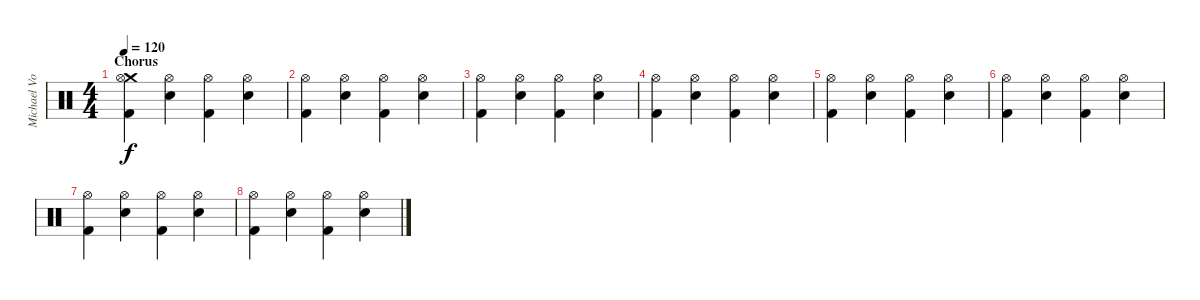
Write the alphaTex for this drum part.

\track ("Michael Von Knorring" "Michael Vo") {instrument percussion}
\staff {score}
\articulation defaults
\ts (4 4)
\section ("" "Chorus")
\tempo 120
\clef neutral
\ks c
("Crash medium (hit)" "Hi-Hat (open)" "Kick (hit) 2").4{dy f} ("Hi-Hat (open)" "Snare (hit) 2").4 ("Hi-Hat (open)" "Kick (hit) 2").4 ("Hi-Hat (open)" "Snare (hit) 2").4 |
("Hi-Hat (open)" "Kick (hit) 2").4 ("Hi-Hat (open)" "Snare (hit) 2").4 ("Hi-Hat (open)" "Kick (hit) 2").4 ("Hi-Hat (open)" "Snare (hit) 2").4 |
("Hi-Hat (open)" "Kick (hit) 2").4 ("Hi-Hat (open)" "Snare (hit) 2").4 ("Hi-Hat (open)" "Kick (hit) 2").4 ("Hi-Hat (open)" "Snare (hit) 2").4 |
("Hi-Hat (open)" "Kick (hit) 2").4 ("Hi-Hat (open)" "Snare (hit) 2").4 ("Hi-Hat (open)" "Kick (hit) 2").4 ("Hi-Hat (open)" "Snare (hit) 2").4 |
("Hi-Hat (open)" "Kick (hit) 2").4 ("Hi-Hat (open)" "Snare (hit) 2").4 ("Hi-Hat (open)" "Kick (hit) 2").4 ("Hi-Hat (open)" "Snare (hit) 2").4 |
("Hi-Hat (open)" "Kick (hit) 2").4 ("Hi-Hat (open)" "Snare (hit) 2").4 ("Hi-Hat (open)" "Kick (hit) 2").4 ("Hi-Hat (open)" "Snare (hit) 2").4 |
("Hi-Hat (open)" "Kick (hit) 2").4 ("Hi-Hat (open)" "Snare (hit) 2").4 ("Hi-Hat (open)" "Kick (hit) 2").4 ("Hi-Hat (open)" "Snare (hit) 2").4 |
("Hi-Hat (open)" "Kick (hit) 2").4 ("Hi-Hat (open)" "Snare (hit) 2").4 ("Hi-Hat (open)" "Kick (hit) 2").4 ("Hi-Hat (open)" "Snare (hit) 2").4
